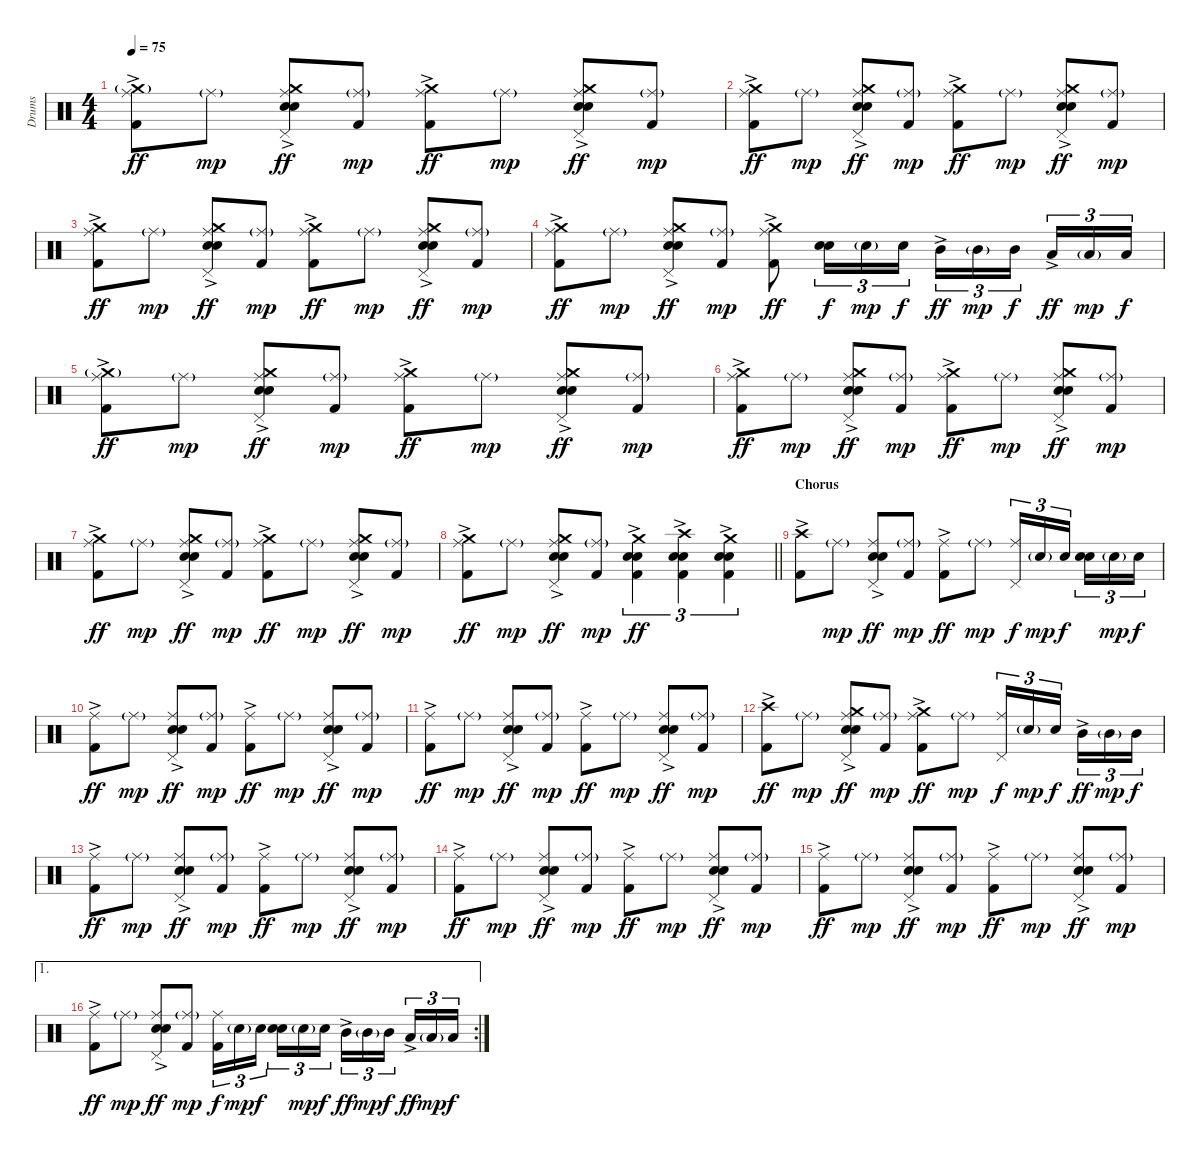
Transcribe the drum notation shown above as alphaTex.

\track ("Drums" "Drums") {instrument percussion}
\staff {score}
\articulation defaults
\ts (4 4)
\tempo 75
\clef neutral
\ks c
("Ride (middle)" "Crash medium (hit)"{g} "Kick (hit) 2"{ac}).8{dy ff} "Ride (middle)"{g}.8{dy mp} ("Ride (middle)" "Crash medium (hit)" "Electric Snare (hit)"{ac} "Snare (hit) 2" "Pedal Hi-Hat (hit)").8{dy ff} ("Ride (middle)"{g} "Kick (hit) 2").8{dy mp} ("Ride (middle)" "Crash medium (hit)" "Kick (hit) 2"{ac}).8{dy ff} "Ride (middle)"{g}.8{dy mp} ("Ride (middle)" "Crash medium (hit)" "Electric Snare (hit)"{ac} "Snare (hit) 2" "Pedal Hi-Hat (hit)").8{dy ff} ("Ride (middle)"{g} "Kick (hit) 2").8{dy mp} |
("Ride (middle)" "Crash medium (hit)" "Kick (hit) 2"{ac}).8{dy ff} "Ride (middle)"{g}.8{dy mp} ("Ride (middle)" "Crash medium (hit)" "Electric Snare (hit)"{ac} "Snare (hit) 2" "Pedal Hi-Hat (hit)").8{dy ff} ("Ride (middle)"{g} "Kick (hit) 2").8{dy mp} ("Ride (middle)" "Crash medium (hit)" "Kick (hit) 2"{ac}).8{dy ff} "Ride (middle)"{g}.8{dy mp} ("Ride (middle)" "Crash medium (hit)" "Electric Snare (hit)"{ac} "Snare (hit) 2" "Pedal Hi-Hat (hit)").8{dy ff} ("Ride (middle)"{g} "Kick (hit) 2").8{dy mp} |
("Ride (middle)" "Crash medium (hit)" "Kick (hit) 2"{ac}).8{dy ff} "Ride (middle)"{g}.8{dy mp} ("Ride (middle)" "Crash medium (hit)" "Electric Snare (hit)"{ac} "Snare (hit) 2" "Pedal Hi-Hat (hit)").8{dy ff} ("Ride (middle)"{g} "Kick (hit) 2").8{dy mp} ("Ride (middle)" "Crash medium (hit)" "Kick (hit) 2"{ac}).8{dy ff} "Ride (middle)"{g}.8{dy mp} ("Ride (middle)" "Crash medium (hit)" "Electric Snare (hit)"{ac} "Snare (hit) 2" "Pedal Hi-Hat (hit)").8{dy ff} ("Ride (middle)"{g} "Kick (hit) 2").8{dy mp} |
("Ride (middle)" "Crash medium (hit)" "Kick (hit) 2"{ac}).8{dy ff} "Ride (middle)"{g}.8{dy mp} ("Ride (middle)" "Crash medium (hit)" "Electric Snare (hit)"{ac} "Snare (hit) 2" "Pedal Hi-Hat (hit)").8{dy ff} ("Ride (middle)"{g} "Kick (hit) 2").8{dy mp} ("Ride (middle)" "Crash medium (hit)" "Kick (hit) 2"{ac}).8{dy ff} ("Electric Snare (hit)" "Snare (hit) 2").16{tu (3 2) dy f} "Snare (hit) 2"{g}.16{tu (3 2) dy mp} "Snare (hit) 2".16{tu (3 2) dy f} "Mid Tom (hit)"{ac}.16{tu (3 2) dy ff} "Mid Tom (hit)"{g}.16{tu (3 2) dy mp} "Mid Tom (hit)".16{tu (3 2) dy f beam splitsecondary} "Low Tom (hit)"{ac}.16{tu (3 2) dy ff} "Low Tom (hit)"{g}.16{tu (3 2) dy mp} "Low Tom (hit)".16{tu (3 2) dy f} |
("Ride (middle)" "Crash medium (hit)"{g} "Kick (hit) 2"{ac}).8{dy ff} "Ride (middle)"{g}.8{dy mp} ("Ride (middle)" "Crash medium (hit)" "Electric Snare (hit)"{ac} "Snare (hit) 2" "Pedal Hi-Hat (hit)").8{dy ff} ("Ride (middle)"{g} "Kick (hit) 2").8{dy mp} ("Ride (middle)" "Crash medium (hit)" "Kick (hit) 2"{ac}).8{dy ff} "Ride (middle)"{g}.8{dy mp} ("Ride (middle)" "Crash medium (hit)" "Electric Snare (hit)"{ac} "Snare (hit) 2" "Pedal Hi-Hat (hit)").8{dy ff} ("Ride (middle)"{g} "Kick (hit) 2").8{dy mp} |
("Ride (middle)" "Crash medium (hit)" "Kick (hit) 2"{ac}).8{dy ff} "Ride (middle)"{g}.8{dy mp} ("Ride (middle)" "Crash medium (hit)" "Electric Snare (hit)"{ac} "Snare (hit) 2" "Pedal Hi-Hat (hit)").8{dy ff} ("Ride (middle)"{g} "Kick (hit) 2").8{dy mp} ("Ride (middle)" "Crash medium (hit)" "Kick (hit) 2"{ac}).8{dy ff} "Ride (middle)"{g}.8{dy mp} ("Ride (middle)" "Crash medium (hit)" "Electric Snare (hit)"{ac} "Snare (hit) 2" "Pedal Hi-Hat (hit)").8{dy ff} ("Ride (middle)"{g} "Kick (hit) 2").8{dy mp} |
("Ride (middle)" "Crash medium (hit)" "Kick (hit) 2"{ac}).8{dy ff} "Ride (middle)"{g}.8{dy mp} ("Ride (middle)" "Crash medium (hit)" "Electric Snare (hit)"{ac} "Snare (hit) 2" "Pedal Hi-Hat (hit)").8{dy ff} ("Ride (middle)"{g} "Kick (hit) 2").8{dy mp} ("Ride (middle)" "Crash medium (hit)" "Kick (hit) 2"{ac}).8{dy ff} "Ride (middle)"{g}.8{dy mp} ("Ride (middle)" "Crash medium (hit)" "Electric Snare (hit)"{ac} "Snare (hit) 2" "Pedal Hi-Hat (hit)").8{dy ff} ("Ride (middle)"{g} "Kick (hit) 2").8{dy mp} |
\barLineRight lightlight
("Ride (middle)" "Crash medium (hit)" "Kick (hit) 2"{ac}).8{dy ff} "Ride (middle)"{g}.8{dy mp} ("Ride (middle)" "Crash medium (hit)" "Electric Snare (hit)"{ac} "Snare (hit) 2" "Pedal Hi-Hat (hit)").8{dy ff} ("Ride (middle)"{g} "Kick (hit) 2").8{dy mp} ("Crash medium (hit)" "Electric Snare (hit)" "Snare (hit) 2" "Kick (hit) 2"{ac}).4{tu (3 2) dy ff} ("Crash high (hit)" "Electric Snare (hit)" "Snare (hit) 2" "Kick (hit) 2"{ac}).4{tu (3 2)} ("Crash medium (hit)" "Electric Snare (hit)" "Snare (hit) 2" "Kick (hit) 2"{ac}).4{tu (3 2)} |
\section ("" "Chorus")
("Crash high (hit)" "Kick (hit) 2"{ac}).8 "Ride (middle)"{g}.8{dy mp} ("Ride (middle)" "Electric Snare (hit)"{ac} "Snare (hit) 2" "Pedal Hi-Hat (hit)").8{dy ff} ("Ride (middle)"{g} "Kick (hit) 2").8{dy mp} ("Ride (middle)" "Kick (hit) 2"{ac}).8{dy ff} "Ride (middle)"{g}.8{dy mp} ("Ride (middle)" "Pedal Hi-Hat (hit)").16{tu (3 2) dy f} "Snare (hit) 2"{g}.16{tu (3 2) dy mp} "Snare (hit) 2".16{tu (3 2) dy f beam splitsecondary} ("Electric Snare (hit)" "Snare (hit) 2").16{tu (3 2)} "Snare (hit) 2"{g}.16{tu (3 2) dy mp} "Snare (hit) 2".16{tu (3 2) dy f} |
("Ride (middle)" "Kick (hit) 2"{ac}).8{dy ff} "Ride (middle)"{g}.8{dy mp} ("Ride (middle)" "Electric Snare (hit)"{ac} "Snare (hit) 2" "Pedal Hi-Hat (hit)").8{dy ff} ("Ride (middle)"{g} "Kick (hit) 2").8{dy mp} ("Ride (middle)" "Kick (hit) 2"{ac}).8{dy ff} "Ride (middle)"{g}.8{dy mp} ("Ride (middle)" "Electric Snare (hit)"{ac} "Snare (hit) 2" "Pedal Hi-Hat (hit)").8{dy ff} ("Ride (middle)"{g} "Kick (hit) 2").8{dy mp} |
("Ride (middle)" "Kick (hit) 2"{ac}).8{dy ff} "Ride (middle)"{g}.8{dy mp} ("Ride (middle)" "Electric Snare (hit)"{ac} "Snare (hit) 2" "Pedal Hi-Hat (hit)").8{dy ff} ("Ride (middle)"{g} "Kick (hit) 2").8{dy mp} ("Ride (middle)" "Kick (hit) 2"{ac}).8{dy ff} "Ride (middle)"{g}.8{dy mp} ("Ride (middle)" "Electric Snare (hit)"{ac} "Snare (hit) 2" "Pedal Hi-Hat (hit)").8{dy ff} ("Ride (middle)"{g} "Kick (hit) 2").8{dy mp} |
("Crash high (hit)" "Kick (hit) 2"{ac}).8{dy ff} "Ride (middle)"{g}.8{dy mp} ("Ride (middle)" "Crash medium (hit)" "Electric Snare (hit)"{ac} "Snare (hit) 2" "Pedal Hi-Hat (hit)").8{dy ff} ("Ride (middle)"{g} "Kick (hit) 2").8{dy mp} ("Ride (middle)" "Crash medium (hit)" "Kick (hit) 2"{ac}).8{dy ff} "Ride (middle)"{g}.8{dy mp} ("Ride (middle)" "Pedal Hi-Hat (hit)").16{tu (3 2) dy f} "Snare (hit) 2"{g}.16{tu (3 2) dy mp} "Snare (hit) 2".16{tu (3 2) dy f beam splitsecondary} "Mid Tom (hit)"{ac}.16{tu (3 2) dy ff} "Mid Tom (hit)"{g}.16{tu (3 2) dy mp} "Mid Tom (hit)".16{tu (3 2) dy f} |
("Ride (middle)" "Kick (hit) 2"{ac}).8{dy ff} "Ride (middle)"{g}.8{dy mp} ("Ride (middle)" "Electric Snare (hit)"{ac} "Snare (hit) 2" "Pedal Hi-Hat (hit)").8{dy ff} ("Ride (middle)"{g} "Kick (hit) 2").8{dy mp} ("Ride (middle)" "Kick (hit) 2"{ac}).8{dy ff} "Ride (middle)"{g}.8{dy mp} ("Ride (middle)" "Electric Snare (hit)"{ac} "Snare (hit) 2" "Pedal Hi-Hat (hit)").8{dy ff} ("Ride (middle)"{g} "Kick (hit) 2").8{dy mp} |
("Ride (middle)" "Kick (hit) 2"{ac}).8{dy ff} "Ride (middle)"{g}.8{dy mp} ("Ride (middle)" "Electric Snare (hit)"{ac} "Snare (hit) 2" "Pedal Hi-Hat (hit)").8{dy ff} ("Ride (middle)"{g} "Kick (hit) 2").8{dy mp} ("Ride (middle)" "Kick (hit) 2"{ac}).8{dy ff} "Ride (middle)"{g}.8{dy mp} ("Ride (middle)" "Electric Snare (hit)"{ac} "Snare (hit) 2" "Pedal Hi-Hat (hit)").8{dy ff} ("Ride (middle)"{g} "Kick (hit) 2").8{dy mp} |
("Ride (middle)" "Kick (hit) 2"{ac}).8{dy ff} "Ride (middle)"{g}.8{dy mp} ("Ride (middle)" "Electric Snare (hit)"{ac} "Snare (hit) 2" "Pedal Hi-Hat (hit)").8{dy ff} ("Ride (middle)"{g} "Kick (hit) 2").8{dy mp} ("Ride (middle)" "Kick (hit) 2"{ac}).8{dy ff} "Ride (middle)"{g}.8{dy mp} ("Ride (middle)" "Electric Snare (hit)"{ac} "Snare (hit) 2" "Pedal Hi-Hat (hit)").8{dy ff} ("Ride (middle)"{g} "Kick (hit) 2").8{dy mp} |
\ae 1
\rc 2
("Ride (middle)" "Kick (hit) 2"{ac}).8{dy ff} "Ride (middle)"{g}.8{dy mp} ("Ride (middle)" "Electric Snare (hit)"{ac} "Snare (hit) 2" "Pedal Hi-Hat (hit)").8{dy ff} ("Ride (middle)"{g} "Kick (hit) 2").8{dy mp} ("Ride (middle)" "Kick (hit) 2").16{tu (3 2) dy f} "Snare (hit) 2"{g}.16{tu (3 2) dy mp} "Snare (hit) 2".16{tu (3 2) dy f beam splitsecondary} ("Electric Snare (hit)" "Snare (hit) 2").16{tu (3 2)} "Snare (hit) 2"{g}.16{tu (3 2) dy mp} "Snare (hit) 2".16{tu (3 2) dy f} "Mid Tom (hit)"{ac}.16{tu (3 2) dy ff} "Mid Tom (hit)"{g}.16{tu (3 2) dy mp} "Mid Tom (hit)".16{tu (3 2) dy f beam splitsecondary} "Low Tom (hit)"{ac}.16{tu (3 2) dy ff} "Low Tom (hit)"{g}.16{tu (3 2) dy mp} "Low Tom (hit)".16{tu (3 2) dy f}
